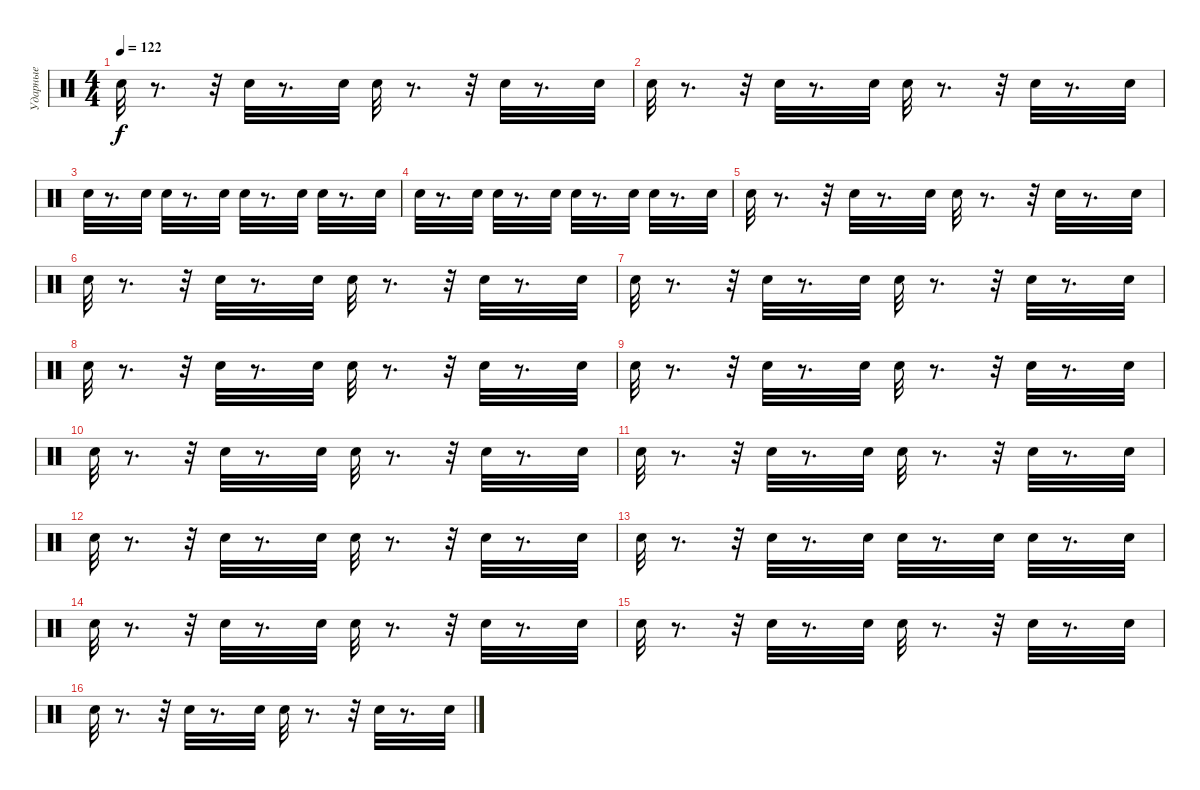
\track ("Ударные" "Ударные") {instrument percussion}
\staff {score}
\articulation defaults
\ts (4 4)
\tempo 122
\clef neutral
\ks c "Snare (hit) 2".32{dy f}
r.8{d} r.32 "Snare (hit) 2".32 r.8{d} "Snare (hit) 2".32 "Snare (hit) 2".32 r.8{d} r.32 "Snare (hit) 2".32 r.8{d} "Snare (hit) 2".32 |
"Snare (hit) 2".32 r.8{d} r.32 "Snare (hit) 2".32 r.8{d} "Snare (hit) 2".32 "Snare (hit) 2".32 r.8{d} r.32 "Snare (hit) 2".32 r.8{d} "Snare (hit) 2".32 |
"Snare (hit) 2".32 r.8{d} "Snare (hit) 2".32 "Snare (hit) 2".32 r.8{d} "Snare (hit) 2".32 "Snare (hit) 2".32 r.8{d} "Snare (hit) 2".32 "Snare (hit) 2".32 r.8{d} "Snare (hit) 2".32 |
"Snare (hit) 2".32 r.8{d} "Snare (hit) 2".32 "Snare (hit) 2".32 r.8{d} "Snare (hit) 2".32 "Snare (hit) 2".32 r.8{d} "Snare (hit) 2".32 "Snare (hit) 2".32 r.8{d} "Snare (hit) 2".32 |
"Snare (hit) 2".32 r.8{d} r.32 "Snare (hit) 2".32 r.8{d} "Snare (hit) 2".32 "Snare (hit) 2".32 r.8{d} r.32 "Snare (hit) 2".32 r.8{d} "Snare (hit) 2".32 |
"Snare (hit) 2".32 r.8{d} r.32 "Snare (hit) 2".32 r.8{d} "Snare (hit) 2".32 "Snare (hit) 2".32 r.8{d} r.32 "Snare (hit) 2".32 r.8{d} "Snare (hit) 2".32 |
"Snare (hit) 2".32 r.8{d} r.32 "Snare (hit) 2".32 r.8{d} "Snare (hit) 2".32 "Snare (hit) 2".32 r.8{d} r.32 "Snare (hit) 2".32 r.8{d} "Snare (hit) 2".32 |
"Snare (hit) 2".32 r.8{d} r.32 "Snare (hit) 2".32 r.8{d} "Snare (hit) 2".32 "Snare (hit) 2".32 r.8{d} r.32 "Snare (hit) 2".32 r.8{d} "Snare (hit) 2".32 |
"Snare (hit) 2".32 r.8{d} r.32 "Snare (hit) 2".32 r.8{d} "Snare (hit) 2".32 "Snare (hit) 2".32 r.8{d} r.32 "Snare (hit) 2".32 r.8{d} "Snare (hit) 2".32 |
"Snare (hit) 2".32 r.8{d} r.32 "Snare (hit) 2".32 r.8{d} "Snare (hit) 2".32 "Snare (hit) 2".32 r.8{d} r.32 "Snare (hit) 2".32 r.8{d} "Snare (hit) 2".32 |
"Snare (hit) 2".32 r.8{d} r.32 "Snare (hit) 2".32 r.8{d} "Snare (hit) 2".32 "Snare (hit) 2".32 r.8{d} r.32 "Snare (hit) 2".32 r.8{d} "Snare (hit) 2".32 |
"Snare (hit) 2".32 r.8{d} r.32 "Snare (hit) 2".32 r.8{d} "Snare (hit) 2".32 "Snare (hit) 2".32 r.8{d} r.32 "Snare (hit) 2".32 r.8{d} "Snare (hit) 2".32 |
"Snare (hit) 2".32 r.8{d} r.32 "Snare (hit) 2".32 r.8{d} "Snare (hit) 2".32 "Snare (hit) 2".32 r.8{d} "Snare (hit) 2".32 "Snare (hit) 2".32 r.8{d} "Snare (hit) 2".32 |
"Snare (hit) 2".32 r.8{d} r.32 "Snare (hit) 2".32 r.8{d} "Snare (hit) 2".32 "Snare (hit) 2".32 r.8{d} r.32 "Snare (hit) 2".32 r.8{d} "Snare (hit) 2".32 |
"Snare (hit) 2".32 r.8{d} r.32 "Snare (hit) 2".32 r.8{d} "Snare (hit) 2".32 "Snare (hit) 2".32 r.8{d} r.32 "Snare (hit) 2".32 r.8{d} "Snare (hit) 2".32 |
"Snare (hit) 2".32 r.8{d} r.32 "Snare (hit) 2".32 r.8{d} "Snare (hit) 2".32 "Snare (hit) 2".32 r.8{d} r.32 "Snare (hit) 2".32 r.8{d} "Snare (hit) 2".32
